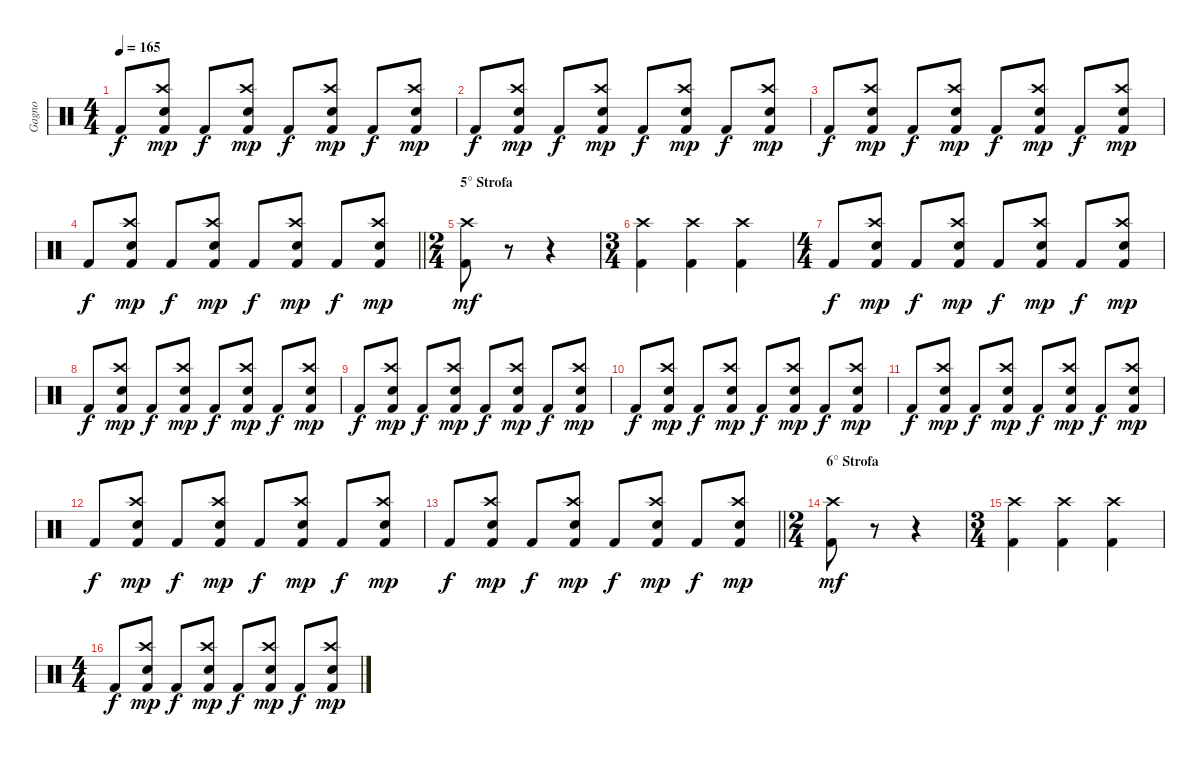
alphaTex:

\track ("Gagno" "Gagno") {instrument percussion}
\staff {score}
\articulation defaults
\ts (4 4)
\tempo 165
\clef neutral
\ks c "Kick (hit) 2".8{dy f}
("Crash high (hit)" "Electric Snare (hit)" "Kick (hit) 2").8{dy mp} "Kick (hit) 2".8{dy f} ("Crash high (hit)" "Electric Snare (hit)" "Kick (hit) 2").8{dy mp} "Kick (hit) 2".8{dy f} ("Crash high (hit)" "Electric Snare (hit)" "Kick (hit) 2").8{dy mp} "Kick (hit) 2".8{dy f} ("Crash high (hit)" "Electric Snare (hit)" "Kick (hit) 2").8{dy mp} |
"Kick (hit) 2".8{dy f} ("Crash high (hit)" "Electric Snare (hit)" "Kick (hit) 2").8{dy mp} "Kick (hit) 2".8{dy f} ("Crash high (hit)" "Electric Snare (hit)" "Kick (hit) 2").8{dy mp} "Kick (hit) 2".8{dy f} ("Crash high (hit)" "Electric Snare (hit)" "Kick (hit) 2").8{dy mp} "Kick (hit) 2".8{dy f} ("Crash high (hit)" "Electric Snare (hit)" "Kick (hit) 2").8{dy mp} |
"Kick (hit) 2".8{dy f} ("Crash high (hit)" "Electric Snare (hit)" "Kick (hit) 2").8{dy mp} "Kick (hit) 2".8{dy f} ("Crash high (hit)" "Electric Snare (hit)" "Kick (hit) 2").8{dy mp} "Kick (hit) 2".8{dy f} ("Crash high (hit)" "Electric Snare (hit)" "Kick (hit) 2").8{dy mp} "Kick (hit) 2".8{dy f} ("Crash high (hit)" "Electric Snare (hit)" "Kick (hit) 2").8{dy mp} |
\barLineRight lightlight "Kick (hit) 2".8{dy f}
("Crash high (hit)" "Electric Snare (hit)" "Kick (hit) 2").8{dy mp} "Kick (hit) 2".8{dy f} ("Crash high (hit)" "Electric Snare (hit)" "Kick (hit) 2").8{dy mp} "Kick (hit) 2".8{dy f} ("Crash high (hit)" "Electric Snare (hit)" "Kick (hit) 2").8{dy mp} "Kick (hit) 2".8{dy f} ("Crash high (hit)" "Electric Snare (hit)" "Kick (hit) 2").8{dy mp} |
\ts (2 4)
\section ("" "5° Strofa")
("Crash high (hit)" "Kick (hit) 2").8{dy mf} r.8 r.4 |
\ts (3 4)
("Crash high (hit)" "Kick (hit) 2").4 ("Crash high (hit)" "Kick (hit) 2").4 ("Crash high (hit)" "Kick (hit) 2").4 |
\ts (4 4)
"Kick (hit) 2".8{dy f} ("Crash high (hit)" "Electric Snare (hit)" "Kick (hit) 2").8{dy mp} "Kick (hit) 2".8{dy f} ("Crash high (hit)" "Electric Snare (hit)" "Kick (hit) 2").8{dy mp} "Kick (hit) 2".8{dy f} ("Crash high (hit)" "Electric Snare (hit)" "Kick (hit) 2").8{dy mp} "Kick (hit) 2".8{dy f} ("Crash high (hit)" "Electric Snare (hit)" "Kick (hit) 2").8{dy mp} |
"Kick (hit) 2".8{dy f} ("Crash high (hit)" "Electric Snare (hit)" "Kick (hit) 2").8{dy mp} "Kick (hit) 2".8{dy f} ("Crash high (hit)" "Electric Snare (hit)" "Kick (hit) 2").8{dy mp} "Kick (hit) 2".8{dy f} ("Crash high (hit)" "Electric Snare (hit)" "Kick (hit) 2").8{dy mp} "Kick (hit) 2".8{dy f} ("Crash high (hit)" "Electric Snare (hit)" "Kick (hit) 2").8{dy mp} |
"Kick (hit) 2".8{dy f} ("Crash high (hit)" "Electric Snare (hit)" "Kick (hit) 2").8{dy mp} "Kick (hit) 2".8{dy f} ("Crash high (hit)" "Electric Snare (hit)" "Kick (hit) 2").8{dy mp} "Kick (hit) 2".8{dy f} ("Crash high (hit)" "Electric Snare (hit)" "Kick (hit) 2").8{dy mp} "Kick (hit) 2".8{dy f} ("Crash high (hit)" "Electric Snare (hit)" "Kick (hit) 2").8{dy mp} |
"Kick (hit) 2".8{dy f} ("Crash high (hit)" "Electric Snare (hit)" "Kick (hit) 2").8{dy mp} "Kick (hit) 2".8{dy f} ("Crash high (hit)" "Electric Snare (hit)" "Kick (hit) 2").8{dy mp} "Kick (hit) 2".8{dy f} ("Crash high (hit)" "Electric Snare (hit)" "Kick (hit) 2").8{dy mp} "Kick (hit) 2".8{dy f} ("Crash high (hit)" "Electric Snare (hit)" "Kick (hit) 2").8{dy mp} |
"Kick (hit) 2".8{dy f} ("Crash high (hit)" "Electric Snare (hit)" "Kick (hit) 2").8{dy mp} "Kick (hit) 2".8{dy f} ("Crash high (hit)" "Electric Snare (hit)" "Kick (hit) 2").8{dy mp} "Kick (hit) 2".8{dy f} ("Crash high (hit)" "Electric Snare (hit)" "Kick (hit) 2").8{dy mp} "Kick (hit) 2".8{dy f} ("Crash high (hit)" "Electric Snare (hit)" "Kick (hit) 2").8{dy mp} |
"Kick (hit) 2".8{dy f} ("Crash high (hit)" "Electric Snare (hit)" "Kick (hit) 2").8{dy mp} "Kick (hit) 2".8{dy f} ("Crash high (hit)" "Electric Snare (hit)" "Kick (hit) 2").8{dy mp} "Kick (hit) 2".8{dy f} ("Crash high (hit)" "Electric Snare (hit)" "Kick (hit) 2").8{dy mp} "Kick (hit) 2".8{dy f} ("Crash high (hit)" "Electric Snare (hit)" "Kick (hit) 2").8{dy mp} |
\barLineRight lightlight "Kick (hit) 2".8{dy f}
("Crash high (hit)" "Electric Snare (hit)" "Kick (hit) 2").8{dy mp} "Kick (hit) 2".8{dy f} ("Crash high (hit)" "Electric Snare (hit)" "Kick (hit) 2").8{dy mp} "Kick (hit) 2".8{dy f} ("Crash high (hit)" "Electric Snare (hit)" "Kick (hit) 2").8{dy mp} "Kick (hit) 2".8{dy f} ("Crash high (hit)" "Electric Snare (hit)" "Kick (hit) 2").8{dy mp} |
\ts (2 4)
\section ("" "6° Strofa")
("Crash high (hit)" "Kick (hit) 2").8{dy mf} r.8 r.4 |
\ts (3 4)
("Crash high (hit)" "Kick (hit) 2").4 ("Crash high (hit)" "Kick (hit) 2").4 ("Crash high (hit)" "Kick (hit) 2").4 |
\ts (4 4)
"Kick (hit) 2".8{dy f} ("Crash high (hit)" "Electric Snare (hit)" "Kick (hit) 2").8{dy mp} "Kick (hit) 2".8{dy f} ("Crash high (hit)" "Electric Snare (hit)" "Kick (hit) 2").8{dy mp} "Kick (hit) 2".8{dy f} ("Crash high (hit)" "Electric Snare (hit)" "Kick (hit) 2").8{dy mp} "Kick (hit) 2".8{dy f} ("Crash high (hit)" "Electric Snare (hit)" "Kick (hit) 2").8{dy mp}
